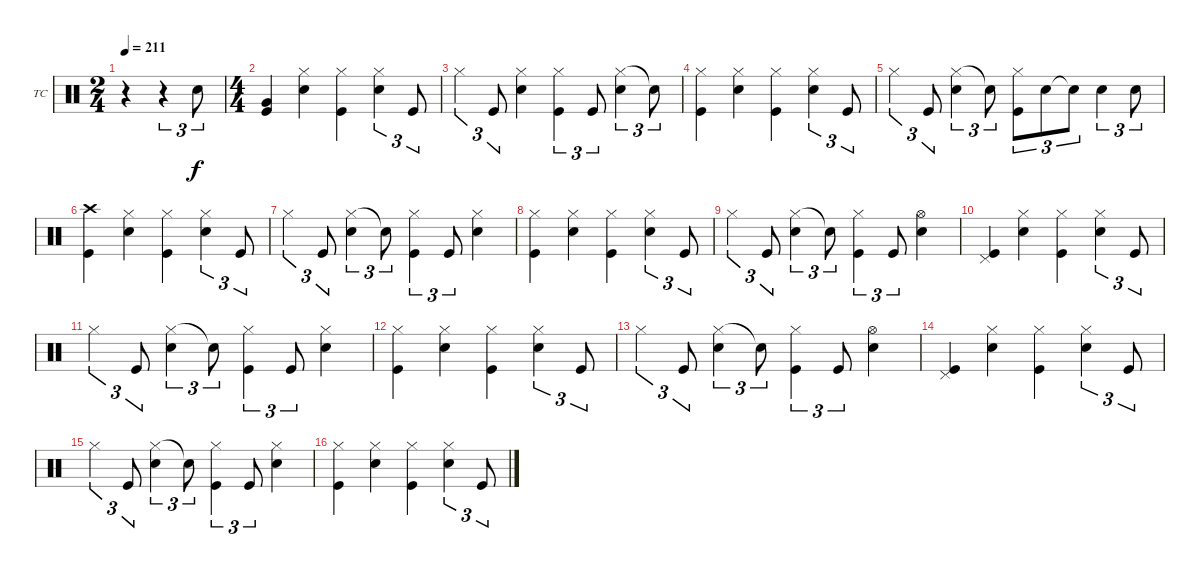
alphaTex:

\defaultSystemsLayout 4
\bracketExtendMode groupsimilarinstruments
\firstSystemTrackNameOrientation horizontal
\otherSystemsTrackNameOrientation horizontal
\track ("Drums - Tre Cool" "TC") {instrument percussion}
\staff {score}
\articulation defaults
\ts (2 4)
\tempo 211
\clef neutral
\scale
0.390805
\ks c
r.4{dy f} r.4{tu (3 2)} "Snare (hit) 2".8{tu (3 2)} |
\ts (4 4)
\scale
0.390805 ("Very Low Tom (hit)" "Kick (hit)").4 ("Hi-Hat (closed)" "Snare (hit) 2").4 ("Hi-Hat (closed)" "Kick (hit)").4 ("Hi-Hat (closed)" "Snare (hit) 2").4{tu (3 2)} "Kick (hit)".8{tu (3 2)} |
\scale
0.218391 "Hi-Hat (closed)".4{tu (3 2)} "Kick (hit)".8{tu (3 2)} ("Hi-Hat (closed)" "Snare (hit) 2").4 ("Hi-Hat (closed)" "Kick (hit)").4{tu (3 2)} "Kick (hit)".8{tu (3 2)} ("Hi-Hat (closed)" "Snare (hit) 2").4{tu (3 2)} "Snare (hit) 2"{t}.8{tu (3 2)} |
\scale
0.333333 ("Hi-Hat (closed)" "Kick (hit)").4 ("Hi-Hat (closed)" "Snare (hit) 2").4 ("Hi-Hat (closed)" "Kick (hit)").4 ("Hi-Hat (closed)" "Snare (hit) 2").4{tu (3 2)} "Kick (hit)".8{tu (3 2)} |
\scale
0.333333 "Hi-Hat (closed)".4{tu (3 2)} "Kick (hit)".8{tu (3 2)} ("Hi-Hat (closed)" "Snare (hit) 2").4{tu (3 2)} "Snare (hit) 2"{t}.8{tu (3 2)} ("Hi-Hat (closed)" "Kick (hit)").8{tu (3 2)} "Snare (hit) 2".8{tu (3 2)} "Snare (hit) 2"{t}.8{tu (3 2)} "Snare (hit) 2".4{tu (3 2)} "Snare (hit) 2".8{tu (3 2)} |
\scale
0.333333 ("Crash high (hit)" "Kick (hit)").4 ("Hi-Hat (closed)" "Snare (hit) 2").4 ("Hi-Hat (closed)" "Kick (hit)").4 ("Hi-Hat (closed)" "Snare (hit) 2").4{tu (3 2)} "Kick (hit)".8{tu (3 2)} |
\scale
0.333333 "Hi-Hat (closed)".4{tu (3 2)} "Kick (hit)".8{tu (3 2)} ("Hi-Hat (closed)" "Snare (hit) 2").4{tu (3 2)} "Snare (hit) 2"{t}.8{tu (3 2)} ("Hi-Hat (closed)" "Kick (hit)").4{tu (3 2)} "Kick (hit)".8{tu (3 2)} ("Hi-Hat (closed)" "Snare (hit) 2").4 |
\scale
0.333333 ("Hi-Hat (closed)" "Kick (hit)").4 ("Hi-Hat (closed)" "Snare (hit) 2").4 ("Hi-Hat (closed)" "Kick (hit)").4 ("Hi-Hat (closed)" "Snare (hit) 2").4{tu (3 2)} "Kick (hit)".8{tu (3 2)} |
\scale
0.333333 "Hi-Hat (closed)".4{tu (3 2)} "Kick (hit)".8{tu (3 2)} ("Hi-Hat (closed)" "Snare (hit) 2").4{tu (3 2)} "Snare (hit) 2"{t}.8{tu (3 2)} ("Hi-Hat (closed)" "Kick (hit)").4{tu (3 2)} "Kick (hit)".8{tu (3 2)} ("Hi-Hat (open)" "Snare (hit) 2").4 |
\scale
0.333333 ("Pedal Hi-Hat (hit)" "Kick (hit)").4 ("Hi-Hat (closed)" "Snare (hit) 2").4 ("Hi-Hat (closed)" "Kick (hit)").4 ("Hi-Hat (closed)" "Snare (hit) 2").4{tu (3 2)} "Kick (hit)".8{tu (3 2)} |
\scale
0.333333 "Hi-Hat (closed)".4{tu (3 2)} "Kick (hit)".8{tu (3 2)} ("Hi-Hat (closed)" "Snare (hit) 2").4{tu (3 2)} "Snare (hit) 2"{t}.8{tu (3 2)} ("Hi-Hat (closed)" "Kick (hit)").4{tu (3 2)} "Kick (hit)".8{tu (3 2)} ("Hi-Hat (closed)" "Snare (hit) 2").4 |
\scale
0.333333 ("Hi-Hat (closed)" "Kick (hit)").4 ("Hi-Hat (closed)" "Snare (hit) 2").4 ("Hi-Hat (closed)" "Kick (hit)").4 ("Hi-Hat (closed)" "Snare (hit) 2").4{tu (3 2)} "Kick (hit)".8{tu (3 2)} |
\scale
0.333333 "Hi-Hat (closed)".4{tu (3 2)} "Kick (hit)".8{tu (3 2)} ("Hi-Hat (closed)" "Snare (hit) 2").4{tu (3 2)} "Snare (hit) 2"{t}.8{tu (3 2)} ("Hi-Hat (closed)" "Kick (hit)").4{tu (3 2)} "Kick (hit)".8{tu (3 2)} ("Hi-Hat (open)" "Snare (hit) 2").4 |
\scale
0.333333 ("Pedal Hi-Hat (hit)" "Kick (hit)").4 ("Hi-Hat (closed)" "Snare (hit) 2").4 ("Hi-Hat (closed)" "Kick (hit)").4 ("Hi-Hat (closed)" "Snare (hit) 2").4{tu (3 2)} "Kick (hit)".8{tu (3 2)} |
\scale
0.333333 "Hi-Hat (closed)".4{tu (3 2)} "Kick (hit)".8{tu (3 2)} ("Hi-Hat (closed)" "Snare (hit) 2").4{tu (3 2)} "Snare (hit) 2"{t}.8{tu (3 2)} ("Hi-Hat (closed)" "Kick (hit)").4{tu (3 2)} "Kick (hit)".8{tu (3 2)} ("Hi-Hat (closed)" "Snare (hit) 2").4 |
\scale
0.333333 ("Hi-Hat (closed)" "Kick (hit)").4 ("Hi-Hat (closed)" "Snare (hit) 2").4 ("Hi-Hat (closed)" "Kick (hit)").4 ("Hi-Hat (closed)" "Snare (hit) 2").4{tu (3 2)} "Kick (hit)".8{tu (3 2)}
